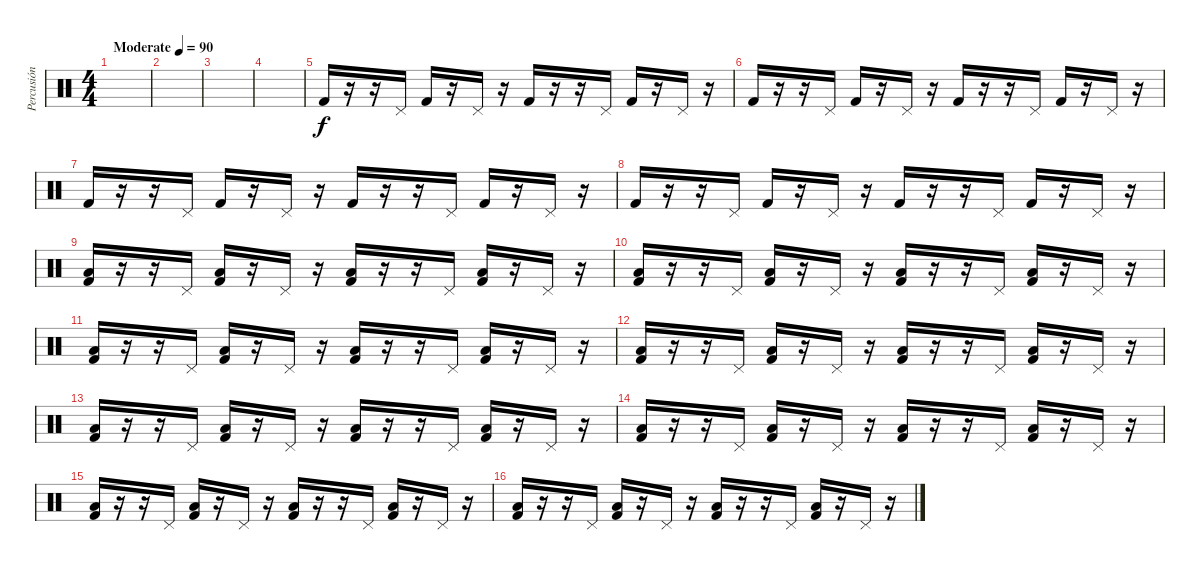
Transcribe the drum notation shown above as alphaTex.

\track ("Percusión" "Percusión") {instrument percussion}
\staff {score}
\articulation defaults
\ts (4 4)
\tempo (90 "Moderate")
\clef neutral
\ks c
|
|
|
|
"Kick (hit) 2".16 r.16 r.16 "Pedal Hi-Hat (hit)".16 "Kick (hit) 2".16 r.16 "Pedal Hi-Hat (hit)".16 r.16 "Kick (hit) 2".16 r.16 r.16 "Pedal Hi-Hat (hit)".16 "Kick (hit) 2".16 r.16 "Pedal Hi-Hat (hit)".16 r.16 |
"Kick (hit) 2".16 r.16 r.16 "Pedal Hi-Hat (hit)".16 "Kick (hit) 2".16 r.16 "Pedal Hi-Hat (hit)".16 r.16 "Kick (hit) 2".16 r.16 r.16 "Pedal Hi-Hat (hit)".16 "Kick (hit) 2".16 r.16 "Pedal Hi-Hat (hit)".16 r.16 |
"Kick (hit) 2".16 r.16 r.16 "Pedal Hi-Hat (hit)".16 "Kick (hit) 2".16 r.16 "Pedal Hi-Hat (hit)".16 r.16 "Kick (hit) 2".16 r.16 r.16 "Pedal Hi-Hat (hit)".16 "Kick (hit) 2".16 r.16 "Pedal Hi-Hat (hit)".16 r.16 |
"Kick (hit) 2".16 r.16 r.16 "Pedal Hi-Hat (hit)".16 "Kick (hit) 2".16 r.16 "Pedal Hi-Hat (hit)".16 r.16 "Kick (hit) 2".16 r.16 r.16 "Pedal Hi-Hat (hit)".16 "Kick (hit) 2".16 r.16 "Pedal Hi-Hat (hit)".16 r.16 |
("Low Floor Tom (hit)" "Kick (hit) 2").16 r.16 r.16 "Pedal Hi-Hat (hit)".16 ("Low Floor Tom (hit)" "Kick (hit) 2").16 r.16 "Pedal Hi-Hat (hit)".16 r.16 ("Low Floor Tom (hit)" "Kick (hit) 2").16 r.16 r.16 "Pedal Hi-Hat (hit)".16 ("Low Floor Tom (hit)" "Kick (hit) 2").16 r.16 "Pedal Hi-Hat (hit)".16 r.16 |
("Low Floor Tom (hit)" "Kick (hit) 2").16 r.16 r.16 "Pedal Hi-Hat (hit)".16 ("Low Floor Tom (hit)" "Kick (hit) 2").16 r.16 "Pedal Hi-Hat (hit)".16 r.16 ("Low Floor Tom (hit)" "Kick (hit) 2").16 r.16 r.16 "Pedal Hi-Hat (hit)".16 ("Low Floor Tom (hit)" "Kick (hit) 2").16 r.16 "Pedal Hi-Hat (hit)".16 r.16 |
("Low Floor Tom (hit)" "Kick (hit) 2").16 r.16 r.16 "Pedal Hi-Hat (hit)".16 ("Low Floor Tom (hit)" "Kick (hit) 2").16 r.16 "Pedal Hi-Hat (hit)".16 r.16 ("Low Floor Tom (hit)" "Kick (hit) 2").16 r.16 r.16 "Pedal Hi-Hat (hit)".16 ("Low Floor Tom (hit)" "Kick (hit) 2").16 r.16 "Pedal Hi-Hat (hit)".16 r.16 |
("Low Floor Tom (hit)" "Kick (hit) 2").16 r.16 r.16 "Pedal Hi-Hat (hit)".16 ("Low Floor Tom (hit)" "Kick (hit) 2").16 r.16 "Pedal Hi-Hat (hit)".16 r.16 ("Low Floor Tom (hit)" "Kick (hit) 2").16 r.16 r.16 "Pedal Hi-Hat (hit)".16 ("Low Floor Tom (hit)" "Kick (hit) 2").16 r.16 "Pedal Hi-Hat (hit)".16 r.16 |
("Low Floor Tom (hit)" "Kick (hit) 2").16 r.16 r.16 "Pedal Hi-Hat (hit)".16 ("Low Floor Tom (hit)" "Kick (hit) 2").16 r.16 "Pedal Hi-Hat (hit)".16 r.16 ("Low Floor Tom (hit)" "Kick (hit) 2").16 r.16 r.16 "Pedal Hi-Hat (hit)".16 ("Low Floor Tom (hit)" "Kick (hit) 2").16 r.16 "Pedal Hi-Hat (hit)".16 r.16 |
("Low Floor Tom (hit)" "Kick (hit) 2").16 r.16 r.16 "Pedal Hi-Hat (hit)".16 ("Low Floor Tom (hit)" "Kick (hit) 2").16 r.16 "Pedal Hi-Hat (hit)".16 r.16 ("Low Floor Tom (hit)" "Kick (hit) 2").16 r.16 r.16 "Pedal Hi-Hat (hit)".16 ("Low Floor Tom (hit)" "Kick (hit) 2").16 r.16 "Pedal Hi-Hat (hit)".16 r.16 |
("Low Floor Tom (hit)" "Kick (hit) 2").16 r.16 r.16 "Pedal Hi-Hat (hit)".16 ("Low Floor Tom (hit)" "Kick (hit) 2").16 r.16 "Pedal Hi-Hat (hit)".16 r.16 ("Low Floor Tom (hit)" "Kick (hit) 2").16 r.16 r.16 "Pedal Hi-Hat (hit)".16 ("Low Floor Tom (hit)" "Kick (hit) 2").16 r.16 "Pedal Hi-Hat (hit)".16 r.16 |
("Low Floor Tom (hit)" "Kick (hit) 2").16 r.16 r.16 "Pedal Hi-Hat (hit)".16 ("Low Floor Tom (hit)" "Kick (hit) 2").16 r.16 "Pedal Hi-Hat (hit)".16 r.16 ("Low Floor Tom (hit)" "Kick (hit) 2").16 r.16 r.16 "Pedal Hi-Hat (hit)".16 ("Low Floor Tom (hit)" "Kick (hit) 2").16 r.16 "Pedal Hi-Hat (hit)".16 r.16
